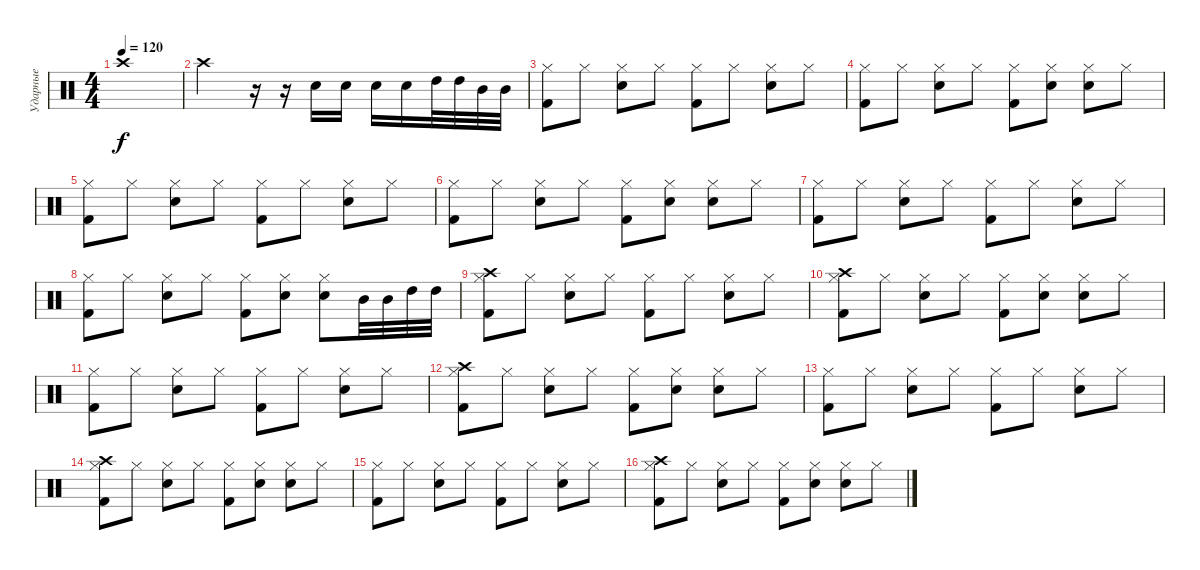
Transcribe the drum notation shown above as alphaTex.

\track ("Ударные" "Ударные") {instrument percussion}
\staff
\articulation defaults
\ts (4 4)
\tempo 120
\clef neutral
\ks c "Crash high (hit)".1{dy f}
|
"Crash high (hit)".2 r.16 r.16 "Snare (hit) 2".16 "Snare (hit) 2".16 "Snare (hit) 2".16 "Snare (hit) 2".16 "High Tom (hit)".32 "High Tom (hit)".32 "Mid Tom (hit)".32 "Mid Tom (hit)".32 |
("Hi-Hat (closed)" "Kick (hit) 2").8 "Hi-Hat (closed)".8 ("Hi-Hat (closed)" "Snare (hit) 2").8 "Hi-Hat (closed)".8 ("Hi-Hat (closed)" "Kick (hit) 2").8 "Hi-Hat (closed)".8 ("Hi-Hat (closed)" "Snare (hit) 2").8 "Hi-Hat (closed)".8 |
("Hi-Hat (closed)" "Kick (hit) 2").8 "Hi-Hat (closed)".8 ("Hi-Hat (closed)" "Snare (hit) 2").8 "Hi-Hat (closed)".8 ("Hi-Hat (closed)" "Kick (hit) 2").8 ("Hi-Hat (closed)" "Snare (hit) 2").8 ("Hi-Hat (closed)" "Snare (hit) 2").8 "Hi-Hat (closed)".8 |
("Hi-Hat (closed)" "Kick (hit) 2").8 "Hi-Hat (closed)".8 ("Hi-Hat (closed)" "Snare (hit) 2").8 "Hi-Hat (closed)".8 ("Hi-Hat (closed)" "Kick (hit) 2").8 "Hi-Hat (closed)".8 ("Hi-Hat (closed)" "Snare (hit) 2").8 "Hi-Hat (closed)".8 |
("Hi-Hat (closed)" "Kick (hit) 2").8 "Hi-Hat (closed)".8 ("Hi-Hat (closed)" "Snare (hit) 2").8 "Hi-Hat (closed)".8 ("Hi-Hat (closed)" "Kick (hit) 2").8 ("Hi-Hat (closed)" "Snare (hit) 2").8 ("Hi-Hat (closed)" "Snare (hit) 2").8 "Hi-Hat (closed)".8 |
("Hi-Hat (closed)" "Kick (hit) 2").8 "Hi-Hat (closed)".8 ("Hi-Hat (closed)" "Snare (hit) 2").8 "Hi-Hat (closed)".8 ("Hi-Hat (closed)" "Kick (hit) 2").8 "Hi-Hat (closed)".8 ("Hi-Hat (closed)" "Snare (hit) 2").8 "Hi-Hat (closed)".8 |
("Hi-Hat (closed)" "Kick (hit) 2").8 "Hi-Hat (closed)".8 ("Hi-Hat (closed)" "Snare (hit) 2").8 "Hi-Hat (closed)".8 ("Hi-Hat (closed)" "Kick (hit) 2").8 ("Hi-Hat (closed)" "Snare (hit) 2").8 ("Hi-Hat (closed)" "Snare (hit) 2").8 "Mid Tom (hit)".32 "Mid Tom (hit)".32 "High Tom (hit)".32 "High Tom (hit)".32 |
("Hi-Hat (closed)" "Kick (hit) 2" "Crash high (hit)").8 "Hi-Hat (closed)".8 ("Hi-Hat (closed)" "Snare (hit) 2").8 "Hi-Hat (closed)".8 ("Hi-Hat (closed)" "Kick (hit) 2").8 "Hi-Hat (closed)".8 ("Hi-Hat (closed)" "Snare (hit) 2").8 "Hi-Hat (closed)".8 |
("Hi-Hat (closed)" "Crash high (hit)" "Kick (hit) 2").8 "Hi-Hat (closed)".8 ("Hi-Hat (closed)" "Snare (hit) 2").8 "Hi-Hat (closed)".8 ("Hi-Hat (closed)" "Kick (hit) 2").8 ("Hi-Hat (closed)" "Snare (hit) 2").8 ("Hi-Hat (closed)" "Snare (hit) 2").8 "Hi-Hat (closed)".8 |
("Hi-Hat (closed)" "Kick (hit) 2").8 "Hi-Hat (closed)".8 ("Hi-Hat (closed)" "Snare (hit) 2").8 "Hi-Hat (closed)".8 ("Hi-Hat (closed)" "Kick (hit) 2").8 "Hi-Hat (closed)".8 ("Hi-Hat (closed)" "Snare (hit) 2").8 "Hi-Hat (closed)".8 |
("Hi-Hat (closed)" "Crash high (hit)" "Kick (hit) 2").8 "Hi-Hat (closed)".8 ("Hi-Hat (closed)" "Snare (hit) 2").8 "Hi-Hat (closed)".8 ("Hi-Hat (closed)" "Kick (hit) 2").8 ("Hi-Hat (closed)" "Snare (hit) 2").8 ("Hi-Hat (closed)" "Snare (hit) 2").8 "Hi-Hat (closed)".8 |
("Hi-Hat (closed)" "Kick (hit) 2").8 "Hi-Hat (closed)".8 ("Hi-Hat (closed)" "Snare (hit) 2").8 "Hi-Hat (closed)".8 ("Hi-Hat (closed)" "Kick (hit) 2").8 "Hi-Hat (closed)".8 ("Hi-Hat (closed)" "Snare (hit) 2").8 "Hi-Hat (closed)".8 |
("Hi-Hat (closed)" "Crash high (hit)" "Kick (hit) 2").8 "Hi-Hat (closed)".8 ("Hi-Hat (closed)" "Snare (hit) 2").8 "Hi-Hat (closed)".8 ("Hi-Hat (closed)" "Kick (hit) 2").8 ("Hi-Hat (closed)" "Snare (hit) 2").8 ("Hi-Hat (closed)" "Snare (hit) 2").8 "Hi-Hat (closed)".8 |
("Hi-Hat (closed)" "Kick (hit) 2").8 "Hi-Hat (closed)".8 ("Hi-Hat (closed)" "Snare (hit) 2").8 "Hi-Hat (closed)".8 ("Hi-Hat (closed)" "Kick (hit) 2").8 "Hi-Hat (closed)".8 ("Hi-Hat (closed)" "Snare (hit) 2").8 "Hi-Hat (closed)".8 |
("Hi-Hat (closed)" "Kick (hit) 2" "Crash high (hit)").8 "Hi-Hat (closed)".8 ("Hi-Hat (closed)" "Snare (hit) 2").8 "Hi-Hat (closed)".8 ("Hi-Hat (closed)" "Kick (hit) 2").8 ("Hi-Hat (closed)" "Snare (hit) 2").8 ("Hi-Hat (closed)" "Snare (hit) 2").8 "Hi-Hat (closed)".8
